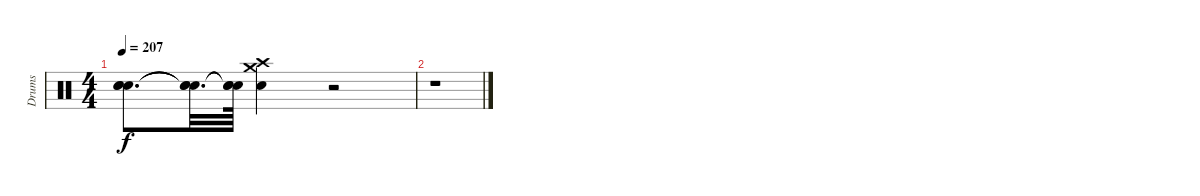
\track ("Drums" "Drums") {instrument percussion}
\staff {score}
\articulation defaults
\ts (4 4)
\tempo 207
\clef neutral
\ks c
("Snare (hit)"{t} "Snare (hit)"{t} "Snare (hit)"{t}).8{d dy f} ("Snare (hit)"{t} "Snare (hit)"{t} "Snare (hit)"{t}).32{d} ("Snare (hit)"{t} "Snare (hit)"{t} "Snare (hit)"{t}).64 ("Crash high (hit)" "Snare (hit) 2" "Crash medium (hit)").4 r.2 |
r.1
